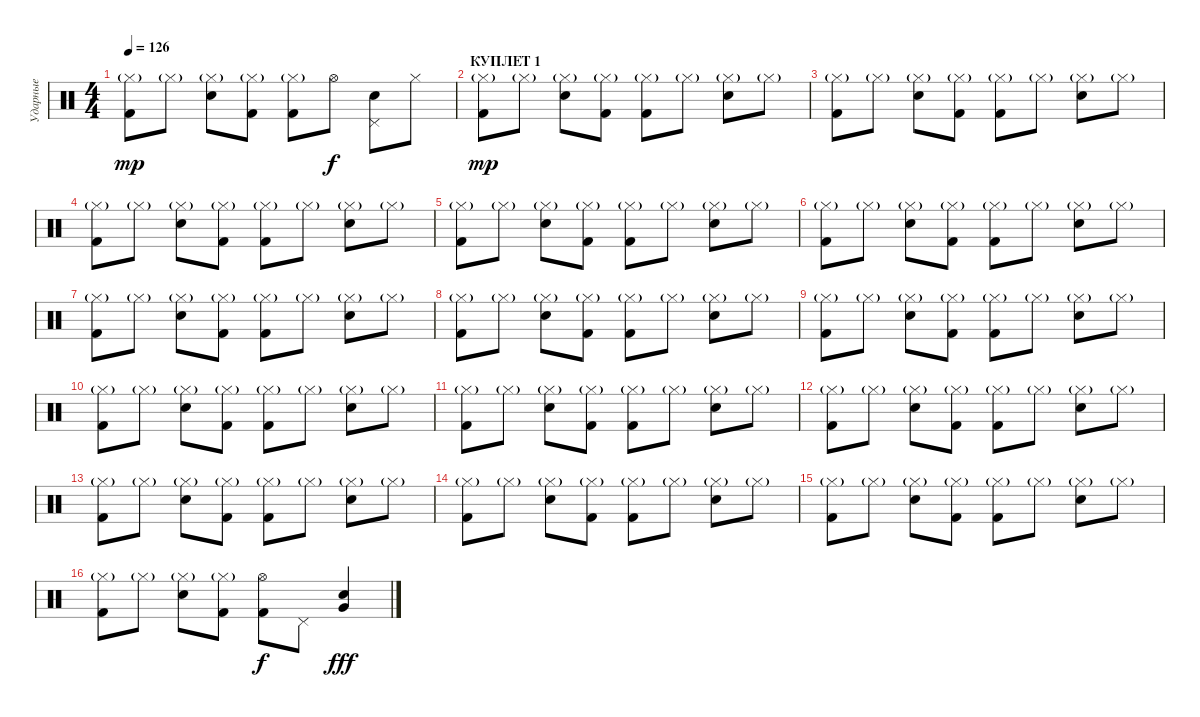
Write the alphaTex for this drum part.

\track ("Ударные" "Ударные") {instrument percussion}
\staff {score}
\articulation defaults
\ts (4 4)
\tempo 126
\clef neutral
\ks c
("Hi-Hat (closed)"{g} "Kick (hit) 2").8{dy mp} "Hi-Hat (closed)"{g}.8 ("Hi-Hat (closed)"{g} "Snare (hit) 2").8 ("Hi-Hat (closed)"{g} "Kick (hit) 2").8 ("Hi-Hat (closed)"{g} "Kick (hit) 2").8 "Hi-Hat (open)".8{dy f} ("Pedal Hi-Hat (hit)" "Snare (hit) 2").8 "Hi-Hat (closed)".8 |
\section ("" "КУПЛЕТ 1")
("Hi-Hat (closed)"{g} "Kick (hit) 2").8{dy mp} "Hi-Hat (closed)"{g}.8 ("Hi-Hat (closed)"{g} "Snare (hit) 2").8 ("Hi-Hat (closed)"{g} "Kick (hit) 2").8 ("Hi-Hat (closed)"{g} "Kick (hit) 2").8 "Hi-Hat (closed)"{g}.8 ("Hi-Hat (closed)"{g} "Snare (hit) 2").8 "Hi-Hat (closed)"{g}.8 |
("Hi-Hat (closed)"{g} "Kick (hit) 2").8 "Hi-Hat (closed)"{g}.8 ("Hi-Hat (closed)"{g} "Snare (hit) 2").8 ("Hi-Hat (closed)"{g} "Kick (hit) 2").8 ("Hi-Hat (closed)"{g} "Kick (hit) 2").8 "Hi-Hat (closed)"{g}.8 ("Hi-Hat (closed)"{g} "Snare (hit) 2").8 "Hi-Hat (closed)"{g}.8 |
("Hi-Hat (closed)"{g} "Kick (hit) 2").8 "Hi-Hat (closed)"{g}.8 ("Hi-Hat (closed)"{g} "Snare (hit) 2").8 ("Hi-Hat (closed)"{g} "Kick (hit) 2").8 ("Hi-Hat (closed)"{g} "Kick (hit) 2").8 "Hi-Hat (closed)"{g}.8 ("Hi-Hat (closed)"{g} "Snare (hit) 2").8 "Hi-Hat (closed)"{g}.8 |
("Hi-Hat (closed)"{g} "Kick (hit) 2").8 "Hi-Hat (closed)"{g}.8 ("Hi-Hat (closed)"{g} "Snare (hit) 2").8 ("Hi-Hat (closed)"{g} "Kick (hit) 2").8 ("Hi-Hat (closed)"{g} "Kick (hit) 2").8 "Hi-Hat (closed)"{g}.8 ("Hi-Hat (closed)"{g} "Snare (hit) 2").8 "Hi-Hat (closed)"{g}.8 |
("Hi-Hat (closed)"{g} "Kick (hit) 2").8 "Hi-Hat (closed)"{g}.8 ("Hi-Hat (closed)"{g} "Snare (hit) 2").8 ("Hi-Hat (closed)"{g} "Kick (hit) 2").8 ("Hi-Hat (closed)"{g} "Kick (hit) 2").8 "Hi-Hat (closed)"{g}.8 ("Hi-Hat (closed)"{g} "Snare (hit) 2").8 "Hi-Hat (closed)"{g}.8 |
("Hi-Hat (closed)"{g} "Kick (hit) 2").8 "Hi-Hat (closed)"{g}.8 ("Hi-Hat (closed)"{g} "Snare (hit) 2").8 ("Hi-Hat (closed)"{g} "Kick (hit) 2").8 ("Hi-Hat (closed)"{g} "Kick (hit) 2").8 "Hi-Hat (closed)"{g}.8 ("Hi-Hat (closed)"{g} "Snare (hit) 2").8 "Hi-Hat (closed)"{g}.8 |
("Hi-Hat (closed)"{g} "Kick (hit) 2").8 "Hi-Hat (closed)"{g}.8 ("Hi-Hat (closed)"{g} "Snare (hit) 2").8 ("Hi-Hat (closed)"{g} "Kick (hit) 2").8 ("Hi-Hat (closed)"{g} "Kick (hit) 2").8 "Hi-Hat (closed)"{g}.8 ("Hi-Hat (closed)"{g} "Snare (hit) 2").8 "Hi-Hat (closed)"{g}.8 |
("Hi-Hat (closed)"{g} "Kick (hit) 2").8 "Hi-Hat (closed)"{g}.8 ("Hi-Hat (closed)"{g} "Snare (hit) 2").8 ("Hi-Hat (closed)"{g} "Kick (hit) 2").8 ("Hi-Hat (closed)"{g} "Kick (hit) 2").8 "Hi-Hat (closed)"{g}.8 ("Hi-Hat (closed)"{g} "Snare (hit) 2").8 "Hi-Hat (closed)"{g}.8 |
("Hi-Hat (closed)"{g} "Kick (hit) 2").8 "Hi-Hat (closed)"{g}.8 ("Hi-Hat (closed)"{g} "Snare (hit) 2").8 ("Hi-Hat (closed)"{g} "Kick (hit) 2").8 ("Hi-Hat (closed)"{g} "Kick (hit) 2").8 "Hi-Hat (closed)"{g}.8 ("Hi-Hat (closed)"{g} "Snare (hit) 2").8 "Hi-Hat (closed)"{g}.8 |
("Hi-Hat (closed)"{g} "Kick (hit) 2").8 "Hi-Hat (closed)"{g}.8 ("Hi-Hat (closed)"{g} "Snare (hit) 2").8 ("Hi-Hat (closed)"{g} "Kick (hit) 2").8 ("Hi-Hat (closed)"{g} "Kick (hit) 2").8 "Hi-Hat (closed)"{g}.8 ("Hi-Hat (closed)"{g} "Snare (hit) 2").8 "Hi-Hat (closed)"{g}.8 |
("Hi-Hat (closed)"{g} "Kick (hit) 2").8 "Hi-Hat (closed)"{g}.8 ("Hi-Hat (closed)"{g} "Snare (hit) 2").8 ("Hi-Hat (closed)"{g} "Kick (hit) 2").8 ("Hi-Hat (closed)"{g} "Kick (hit) 2").8 "Hi-Hat (closed)"{g}.8 ("Hi-Hat (closed)"{g} "Snare (hit) 2").8 "Hi-Hat (closed)"{g}.8 |
("Hi-Hat (closed)"{g} "Kick (hit) 2").8 "Hi-Hat (closed)"{g}.8 ("Hi-Hat (closed)"{g} "Snare (hit) 2").8 ("Hi-Hat (closed)"{g} "Kick (hit) 2").8 ("Hi-Hat (closed)"{g} "Kick (hit) 2").8 "Hi-Hat (closed)"{g}.8 ("Hi-Hat (closed)"{g} "Snare (hit) 2").8 "Hi-Hat (closed)"{g}.8 |
("Hi-Hat (closed)"{g} "Kick (hit) 2").8 "Hi-Hat (closed)"{g}.8 ("Hi-Hat (closed)"{g} "Snare (hit) 2").8 ("Hi-Hat (closed)"{g} "Kick (hit) 2").8 ("Hi-Hat (closed)"{g} "Kick (hit) 2").8 "Hi-Hat (closed)"{g}.8 ("Hi-Hat (closed)"{g} "Snare (hit) 2").8 "Hi-Hat (closed)"{g}.8 |
("Hi-Hat (closed)"{g} "Kick (hit) 2").8 "Hi-Hat (closed)"{g}.8 ("Hi-Hat (closed)"{g} "Snare (hit) 2").8 ("Hi-Hat (closed)"{g} "Kick (hit) 2").8 ("Hi-Hat (closed)"{g} "Kick (hit) 2").8 "Hi-Hat (closed)"{g}.8 ("Hi-Hat (closed)"{g} "Snare (hit) 2").8 "Hi-Hat (closed)"{g}.8 |
("Hi-Hat (closed)"{g} "Kick (hit) 2").8 "Hi-Hat (closed)"{g}.8 ("Hi-Hat (closed)"{g} "Snare (hit) 2").8 ("Hi-Hat (closed)"{g} "Kick (hit) 2").8 ("Hi-Hat (open)" "Kick (hit) 2").8{dy f} "Pedal Hi-Hat (hit)".8 ("Snare (hit) 2" "Very Low Tom (hit)").4{dy fff}
